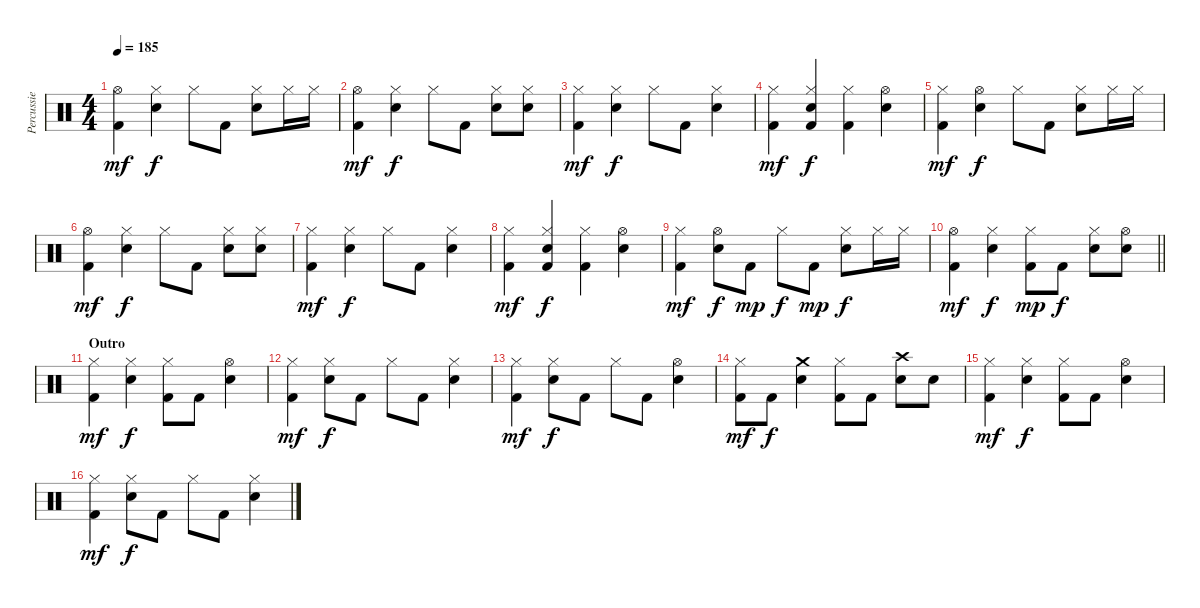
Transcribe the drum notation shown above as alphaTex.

\track ("Percussie" "Percussie") {instrument percussion}
\staff {score}
\articulation defaults
\ts (4 4)
\tempo 185
\clef neutral
\ks c
("Hi-Hat (open)" "Kick (hit) 2").4{dy mf} ("Hi-Hat (closed)" "Electric Snare (hit)").4{dy f} "Hi-Hat (closed)".8 "Kick (hit) 2".8 ("Hi-Hat (closed)" "Electric Snare (hit)").8 "Hi-Hat (closed)".16 "Hi-Hat (closed)".16 |
("Hi-Hat (open)" "Kick (hit) 2").4{dy mf} ("Hi-Hat (closed)" "Electric Snare (hit)").4{dy f} "Hi-Hat (closed)".8 "Kick (hit) 2".8 ("Hi-Hat (closed)" "Electric Snare (hit)").8 ("Hi-Hat (closed)" "Electric Snare (hit)").8 |
("Hi-Hat (closed)" "Kick (hit) 2").4{dy mf} ("Hi-Hat (closed)" "Electric Snare (hit)").4{dy f} "Hi-Hat (closed)".8 "Kick (hit) 2".8 ("Hi-Hat (closed)" "Electric Snare (hit)").4 |
("Hi-Hat (closed)" "Kick (hit) 2").4{dy mf} ("Hi-Hat (closed)" "Electric Snare (hit)" "Kick (hit) 2").4{dy f} ("Hi-Hat (closed)" "Kick (hit) 2").4 ("Hi-Hat (open)" "Electric Snare (hit)").4 |
("Hi-Hat (closed)" "Kick (hit) 2").4{dy mf} ("Hi-Hat (open)" "Electric Snare (hit)").4{dy f} "Hi-Hat (closed)".8 "Kick (hit) 2".8 ("Hi-Hat (closed)" "Electric Snare (hit)").8 "Hi-Hat (closed)".16 "Hi-Hat (closed)".16 |
("Hi-Hat (open)" "Kick (hit) 2").4{dy mf} ("Hi-Hat (closed)" "Electric Snare (hit)").4{dy f} "Hi-Hat (closed)".8 "Kick (hit) 2".8 ("Hi-Hat (closed)" "Electric Snare (hit)").8 ("Hi-Hat (closed)" "Electric Snare (hit)").8 |
("Hi-Hat (closed)" "Kick (hit) 2").4{dy mf} ("Hi-Hat (closed)" "Electric Snare (hit)").4{dy f} "Hi-Hat (closed)".8 "Kick (hit) 2".8 ("Hi-Hat (closed)" "Electric Snare (hit)").4 |
("Hi-Hat (closed)" "Kick (hit) 2").4{dy mf} ("Hi-Hat (closed)" "Electric Snare (hit)" "Kick (hit) 2").4{dy f} ("Hi-Hat (closed)" "Kick (hit) 2").4 ("Hi-Hat (open)" "Electric Snare (hit)").4 |
("Hi-Hat (closed)" "Kick (hit) 2").4{dy mf} ("Hi-Hat (open)" "Electric Snare (hit)").8{dy f} "Kick (hit) 2".8{dy mp} "Hi-Hat (closed)".8{dy f} "Kick (hit) 2".8{dy mp} ("Hi-Hat (closed)" "Electric Snare (hit)").8{dy f} "Hi-Hat (closed)".16 "Hi-Hat (closed)".16 |
\barLineRight lightlight
("Hi-Hat (open)" "Kick (hit) 2").4{dy mf} ("Hi-Hat (closed)" "Electric Snare (hit)").4{dy f} ("Hi-Hat (closed)" "Kick (hit) 2").8{dy mp} "Kick (hit) 2".8{dy f} ("Hi-Hat (closed)" "Electric Snare (hit)").8 ("Hi-Hat (open)" "Electric Snare (hit)").8 |
\section ("" "Outro")
("Hi-Hat (closed)" "Kick (hit) 2").4{dy mf} ("Hi-Hat (closed)" "Electric Snare (hit)").4{dy f} ("Hi-Hat (closed)" "Kick (hit) 2").8 "Kick (hit) 2".8 ("Hi-Hat (open)" "Electric Snare (hit)").4 |
("Hi-Hat (closed)" "Kick (hit) 2").4{dy mf} ("Hi-Hat (closed)" "Electric Snare (hit)").8{dy f} "Kick (hit) 2".8 "Hi-Hat (closed)".8 "Kick (hit) 2".8 ("Hi-Hat (closed)" "Electric Snare (hit)").4 |
("Hi-Hat (closed)" "Kick (hit) 2").4{dy mf} ("Hi-Hat (closed)" "Electric Snare (hit)").8{dy f} "Kick (hit) 2".8 "Hi-Hat (closed)".8 "Kick (hit) 2".8 ("Hi-Hat (open)" "Electric Snare (hit)").4 |
("Hi-Hat (closed)" "Kick (hit) 2").8{dy mf} "Kick (hit) 2".8{dy f} ("Crash medium (hit)" "Electric Snare (hit)").4 ("Hi-Hat (closed)" "Kick (hit) 2").8 "Kick (hit) 2".8 ("Crash high (hit)" "Electric Snare (hit)").8 "Electric Snare (hit)".8 |
("Hi-Hat (closed)" "Kick (hit) 2").4{dy mf} ("Hi-Hat (closed)" "Electric Snare (hit)").4{dy f} ("Hi-Hat (closed)" "Kick (hit) 2").8 "Kick (hit) 2".8 ("Hi-Hat (open)" "Electric Snare (hit)").4 |
("Hi-Hat (closed)" "Kick (hit) 2").4{dy mf} ("Hi-Hat (closed)" "Electric Snare (hit)").8{dy f} "Kick (hit) 2".8 "Hi-Hat (closed)".8 "Kick (hit) 2".8 ("Hi-Hat (closed)" "Electric Snare (hit)").4
